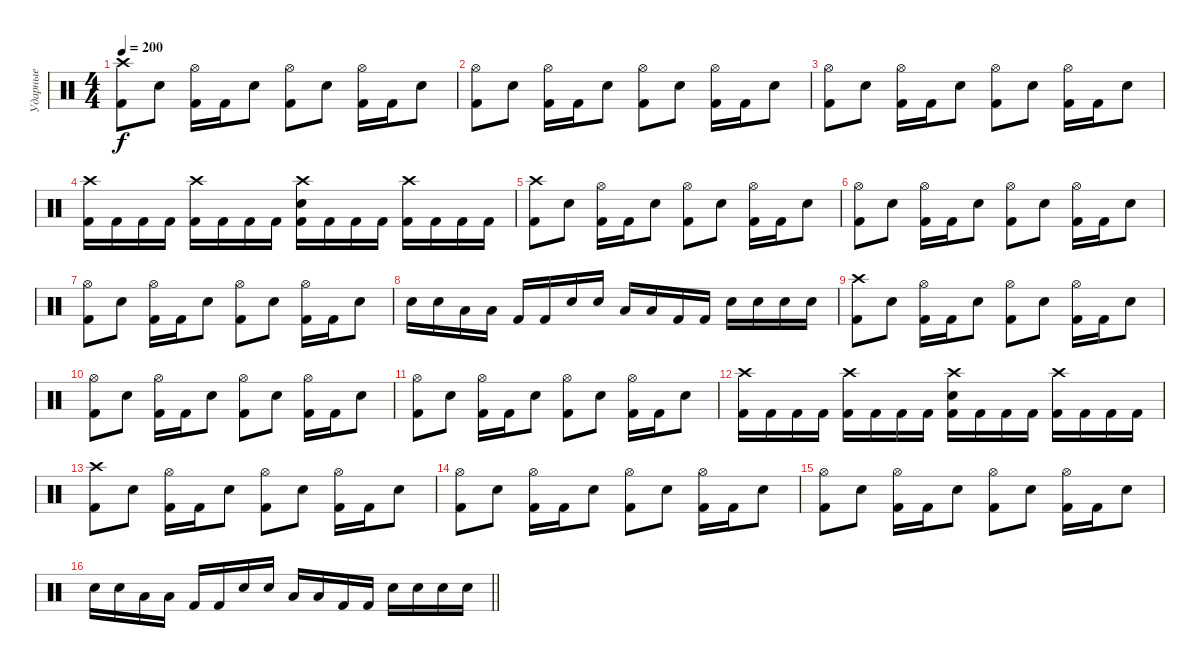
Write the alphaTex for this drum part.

\track ("Ударные" "Ударные") {instrument percussion}
\staff {score}
\articulation defaults
\ts (4 4)
\tempo 200
\clef neutral
\ks c
("Crash high (hit)" "Kick (hit) 2").8{dy f} "Electric Snare (hit)".8 ("Hi-Hat (open)" "Kick (hit) 2").16 "Kick (hit) 2".16 "Electric Snare (hit)".8 ("Hi-Hat (open)" "Kick (hit) 2").8 "Electric Snare (hit)".8 ("Hi-Hat (open)" "Kick (hit) 2").16 "Kick (hit) 2".16 "Electric Snare (hit)".8 |
("Hi-Hat (open)" "Kick (hit) 2").8 "Electric Snare (hit)".8 ("Hi-Hat (open)" "Kick (hit) 2").16 "Kick (hit) 2".16 "Electric Snare (hit)".8 ("Hi-Hat (open)" "Kick (hit) 2").8 "Electric Snare (hit)".8 ("Hi-Hat (open)" "Kick (hit) 2").16 "Kick (hit) 2".16 "Electric Snare (hit)".8 |
("Hi-Hat (open)" "Kick (hit) 2").8 "Electric Snare (hit)".8 ("Hi-Hat (open)" "Kick (hit) 2").16 "Kick (hit) 2".16 "Electric Snare (hit)".8 ("Hi-Hat (open)" "Kick (hit) 2").8 "Electric Snare (hit)".8 ("Hi-Hat (open)" "Kick (hit) 2").16 "Kick (hit) 2".16 "Electric Snare (hit)".8 |
("Crash high (hit)" "Kick (hit) 2").16 "Kick (hit) 2".16 "Kick (hit) 2".16 "Kick (hit) 2".16 ("Crash high (hit)" "Kick (hit) 2").16 "Kick (hit) 2".16 "Kick (hit) 2".16 "Kick (hit) 2".16 ("Crash high (hit)" "Electric Snare (hit)" "Kick (hit) 2").16 "Kick (hit) 2".16 "Kick (hit) 2".16 "Kick (hit) 2".16 ("Crash high (hit)" "Kick (hit) 2").16 "Kick (hit) 2".16 "Kick (hit) 2".16 "Kick (hit) 2".16 |
("Crash high (hit)" "Kick (hit) 2").8 "Electric Snare (hit)".8 ("Hi-Hat (open)" "Kick (hit) 2").16 "Kick (hit) 2".16 "Electric Snare (hit)".8 ("Hi-Hat (open)" "Kick (hit) 2").8 "Electric Snare (hit)".8 ("Hi-Hat (open)" "Kick (hit) 2").16 "Kick (hit) 2".16 "Electric Snare (hit)".8 |
("Hi-Hat (open)" "Kick (hit) 2").8 "Electric Snare (hit)".8 ("Hi-Hat (open)" "Kick (hit) 2").16 "Kick (hit) 2".16 "Electric Snare (hit)".8 ("Hi-Hat (open)" "Kick (hit) 2").8 "Electric Snare (hit)".8 ("Hi-Hat (open)" "Kick (hit) 2").16 "Kick (hit) 2".16 "Electric Snare (hit)".8 |
("Hi-Hat (open)" "Kick (hit) 2").8 "Electric Snare (hit)".8 ("Hi-Hat (open)" "Kick (hit) 2").16 "Kick (hit) 2".16 "Electric Snare (hit)".8 ("Hi-Hat (open)" "Kick (hit) 2").8 "Electric Snare (hit)".8 ("Hi-Hat (open)" "Kick (hit) 2").16 "Kick (hit) 2".16 "Electric Snare (hit)".8 |
"Electric Snare (hit)".16 "Electric Snare (hit)".16 "Low Tom (hit)".16 "Low Tom (hit)".16 "Kick (hit) 2".16 "Kick (hit) 2".16 "Electric Snare (hit)".16 "Electric Snare (hit)".16 "Low Tom (hit)".16 "Low Tom (hit)".16 "Kick (hit) 2".16 "Kick (hit) 2".16 "Electric Snare (hit)".16 "Electric Snare (hit)".16 "Electric Snare (hit)".16 "Electric Snare (hit)".16 |
("Crash high (hit)" "Kick (hit) 2").8 "Electric Snare (hit)".8 ("Hi-Hat (open)" "Kick (hit) 2").16 "Kick (hit) 2".16 "Electric Snare (hit)".8 ("Hi-Hat (open)" "Kick (hit) 2").8 "Electric Snare (hit)".8 ("Hi-Hat (open)" "Kick (hit) 2").16 "Kick (hit) 2".16 "Electric Snare (hit)".8 |
("Hi-Hat (open)" "Kick (hit) 2").8 "Electric Snare (hit)".8 ("Hi-Hat (open)" "Kick (hit) 2").16 "Kick (hit) 2".16 "Electric Snare (hit)".8 ("Hi-Hat (open)" "Kick (hit) 2").8 "Electric Snare (hit)".8 ("Hi-Hat (open)" "Kick (hit) 2").16 "Kick (hit) 2".16 "Electric Snare (hit)".8 |
("Hi-Hat (open)" "Kick (hit) 2").8 "Electric Snare (hit)".8 ("Hi-Hat (open)" "Kick (hit) 2").16 "Kick (hit) 2".16 "Electric Snare (hit)".8 ("Hi-Hat (open)" "Kick (hit) 2").8 "Electric Snare (hit)".8 ("Hi-Hat (open)" "Kick (hit) 2").16 "Kick (hit) 2".16 "Electric Snare (hit)".8 |
("Crash high (hit)" "Kick (hit) 2").16 "Kick (hit) 2".16 "Kick (hit) 2".16 "Kick (hit) 2".16 ("Crash high (hit)" "Kick (hit) 2").16 "Kick (hit) 2".16 "Kick (hit) 2".16 "Kick (hit) 2".16 ("Crash high (hit)" "Electric Snare (hit)" "Kick (hit) 2").16 "Kick (hit) 2".16 "Kick (hit) 2".16 "Kick (hit) 2".16 ("Crash high (hit)" "Kick (hit) 2").16 "Kick (hit) 2".16 "Kick (hit) 2".16 "Kick (hit) 2".16 |
("Crash high (hit)" "Kick (hit) 2").8 "Electric Snare (hit)".8 ("Hi-Hat (open)" "Kick (hit) 2").16 "Kick (hit) 2".16 "Electric Snare (hit)".8 ("Hi-Hat (open)" "Kick (hit) 2").8 "Electric Snare (hit)".8 ("Hi-Hat (open)" "Kick (hit) 2").16 "Kick (hit) 2".16 "Electric Snare (hit)".8 |
("Hi-Hat (open)" "Kick (hit) 2").8 "Electric Snare (hit)".8 ("Hi-Hat (open)" "Kick (hit) 2").16 "Kick (hit) 2".16 "Electric Snare (hit)".8 ("Hi-Hat (open)" "Kick (hit) 2").8 "Electric Snare (hit)".8 ("Hi-Hat (open)" "Kick (hit) 2").16 "Kick (hit) 2".16 "Electric Snare (hit)".8 |
("Hi-Hat (open)" "Kick (hit) 2").8 "Electric Snare (hit)".8 ("Hi-Hat (open)" "Kick (hit) 2").16 "Kick (hit) 2".16 "Electric Snare (hit)".8 ("Hi-Hat (open)" "Kick (hit) 2").8 "Electric Snare (hit)".8 ("Hi-Hat (open)" "Kick (hit) 2").16 "Kick (hit) 2".16 "Electric Snare (hit)".8 |
\barLineRight lightlight "Electric Snare (hit)".16 "Electric Snare (hit)".16 "Low Tom (hit)".16 "Low Tom (hit)".16 "Kick (hit) 2".16 "Kick (hit) 2".16 "Electric Snare (hit)".16 "Electric Snare (hit)".16 "Low Tom (hit)".16 "Low Tom (hit)".16 "Kick (hit) 2".16 "Kick (hit) 2".16 "Electric Snare (hit)".16 "Electric Snare (hit)".16 "Electric Snare (hit)".16 "Electric Snare (hit)".16
